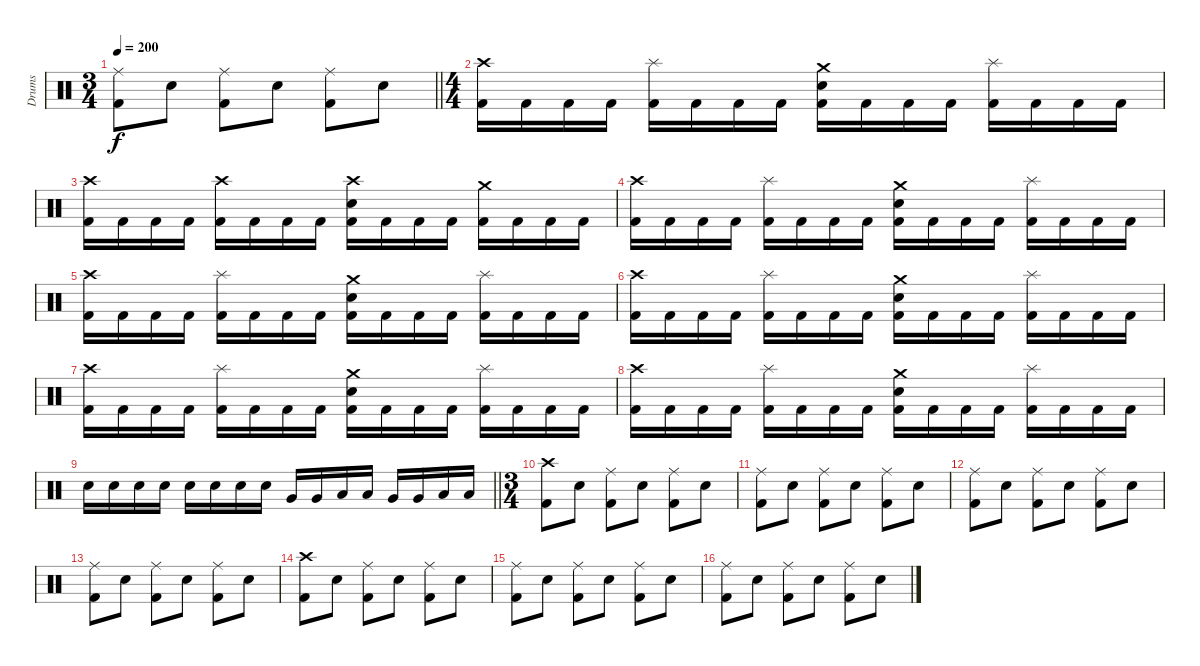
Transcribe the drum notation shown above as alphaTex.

\track ("Drums" "Drums") {instrument percussion}
\staff {score}
\articulation defaults
\ts (3 4)
\tempo 200
\clef neutral
\barLineRight lightlight
\ks c
("Ride (middle)" "Kick (hit) 2").8{dy f} "Electric Snare (hit)".8 ("Ride (middle)" "Kick (hit) 2").8 "Electric Snare (hit)".8 ("Ride (middle)" "Kick (hit) 2").8 "Electric Snare (hit)".8 |
\ts (4 4)
("Crash high (hit)" "Kick (hit) 2").16 "Kick (hit) 2".16 "Kick (hit) 2".16 "Kick (hit) 2".16 ("Splash (hit)" "Kick (hit) 2").16 "Kick (hit) 2".16 "Kick (hit) 2".16 "Kick (hit) 2".16 ("Crash medium (hit)" "Electric Snare (hit)" "Kick (hit) 2").16 "Kick (hit) 2".16 "Kick (hit) 2".16 "Kick (hit) 2".16 ("Splash (hit)" "Kick (hit) 2").16 "Kick (hit) 2".16 "Kick (hit) 2".16 "Kick (hit) 2".16 |
("Crash high (hit)" "Kick (hit) 2").16 "Kick (hit) 2".16 "Kick (hit) 2".16 "Kick (hit) 2".16 ("Crash high (hit)" "Kick (hit) 2").16 "Kick (hit) 2".16 "Kick (hit) 2".16 "Kick (hit) 2".16 ("Crash high (hit)" "Electric Snare (hit)" "Kick (hit) 2").16 "Kick (hit) 2".16 "Kick (hit) 2".16 "Kick (hit) 2".16 ("Crash medium (hit)" "Kick (hit) 2").16 "Kick (hit) 2".16 "Kick (hit) 2".16 "Kick (hit) 2".16 |
("Crash high (hit)" "Kick (hit) 2").16 "Kick (hit) 2".16 "Kick (hit) 2".16 "Kick (hit) 2".16 ("Splash (hit)" "Kick (hit) 2").16 "Kick (hit) 2".16 "Kick (hit) 2".16 "Kick (hit) 2".16 ("Crash medium (hit)" "Electric Snare (hit)" "Kick (hit) 2").16 "Kick (hit) 2".16 "Kick (hit) 2".16 "Kick (hit) 2".16 ("Splash (hit)" "Kick (hit) 2").16 "Kick (hit) 2".16 "Kick (hit) 2".16 "Kick (hit) 2".16 |
("Crash high (hit)" "Kick (hit) 2").16 "Kick (hit) 2".16 "Kick (hit) 2".16 "Kick (hit) 2".16 ("Splash (hit)" "Kick (hit) 2").16 "Kick (hit) 2".16 "Kick (hit) 2".16 "Kick (hit) 2".16 ("Crash medium (hit)" "Electric Snare (hit)" "Kick (hit) 2").16 "Kick (hit) 2".16 "Kick (hit) 2".16 "Kick (hit) 2".16 ("Splash (hit)" "Kick (hit) 2").16 "Kick (hit) 2".16 "Kick (hit) 2".16 "Kick (hit) 2".16 |
("Crash high (hit)" "Kick (hit) 2").16 "Kick (hit) 2".16 "Kick (hit) 2".16 "Kick (hit) 2".16 ("Splash (hit)" "Kick (hit) 2").16 "Kick (hit) 2".16 "Kick (hit) 2".16 "Kick (hit) 2".16 ("Crash medium (hit)" "Electric Snare (hit)" "Kick (hit) 2").16 "Kick (hit) 2".16 "Kick (hit) 2".16 "Kick (hit) 2".16 ("Splash (hit)" "Kick (hit) 2").16 "Kick (hit) 2".16 "Kick (hit) 2".16 "Kick (hit) 2".16 |
("Crash high (hit)" "Kick (hit) 2").16 "Kick (hit) 2".16 "Kick (hit) 2".16 "Kick (hit) 2".16 ("Splash (hit)" "Kick (hit) 2").16 "Kick (hit) 2".16 "Kick (hit) 2".16 "Kick (hit) 2".16 ("Crash medium (hit)" "Electric Snare (hit)" "Kick (hit) 2").16 "Kick (hit) 2".16 "Kick (hit) 2".16 "Kick (hit) 2".16 ("Splash (hit)" "Kick (hit) 2").16 "Kick (hit) 2".16 "Kick (hit) 2".16 "Kick (hit) 2".16 |
("Crash high (hit)" "Kick (hit) 2").16 "Kick (hit) 2".16 "Kick (hit) 2".16 "Kick (hit) 2".16 ("Splash (hit)" "Kick (hit) 2").16 "Kick (hit) 2".16 "Kick (hit) 2".16 "Kick (hit) 2".16 ("Crash medium (hit)" "Electric Snare (hit)" "Kick (hit) 2").16 "Kick (hit) 2".16 "Kick (hit) 2".16 "Kick (hit) 2".16 ("Splash (hit)" "Kick (hit) 2").16 "Kick (hit) 2".16 "Kick (hit) 2".16 "Kick (hit) 2".16 |
\barLineRight lightlight "Electric Snare (hit)".16 "Electric Snare (hit)".16 "Electric Snare (hit)".16 "Electric Snare (hit)".16 "Electric Snare (hit)".16 "Electric Snare (hit)".16 "Electric Snare (hit)".16 "Electric Snare (hit)".16 "Very Low Tom (hit)".16 "Very Low Tom (hit)".16 "Low Tom (hit)".16 "Low Tom (hit)".16 "Very Low Tom (hit)".16 "Very Low Tom (hit)".16 "Low Floor Tom (hit)".16 "Low Floor Tom (hit)".16
|
\ts (3 4)
("Crash high (hit)" "Kick (hit) 2").8 "Electric Snare (hit)".8 ("Ride (middle)" "Kick (hit) 2").8 "Electric Snare (hit)".8 ("Ride (middle)" "Kick (hit) 2").8 "Electric Snare (hit)".8 |
("Ride (middle)" "Kick (hit) 2").8 "Electric Snare (hit)".8 ("Ride (middle)" "Kick (hit) 2").8 "Electric Snare (hit)".8 ("Ride (middle)" "Kick (hit) 2").8 "Electric Snare (hit)".8 |
("Ride (middle)" "Kick (hit) 2").8 "Electric Snare (hit)".8 ("Ride (middle)" "Kick (hit) 2").8 "Electric Snare (hit)".8 ("Ride (middle)" "Kick (hit) 2").8 "Electric Snare (hit)".8 |
("Ride (middle)" "Kick (hit) 2").8 "Electric Snare (hit)".8 ("Ride (middle)" "Kick (hit) 2").8 "Electric Snare (hit)".8 ("Ride (middle)" "Kick (hit) 2").8 "Electric Snare (hit)".8 |
("Crash high (hit)" "Kick (hit) 2").8 "Electric Snare (hit)".8 ("Ride (middle)" "Kick (hit) 2").8 "Electric Snare (hit)".8 ("Ride (middle)" "Kick (hit) 2").8 "Electric Snare (hit)".8 |
("Ride (middle)" "Kick (hit) 2").8 "Electric Snare (hit)".8 ("Ride (middle)" "Kick (hit) 2").8 "Electric Snare (hit)".8 ("Ride (middle)" "Kick (hit) 2").8 "Electric Snare (hit)".8 |
("Ride (middle)" "Kick (hit) 2").8 "Electric Snare (hit)".8 ("Ride (middle)" "Kick (hit) 2").8 "Electric Snare (hit)".8 ("Ride (middle)" "Kick (hit) 2").8 "Electric Snare (hit)".8
